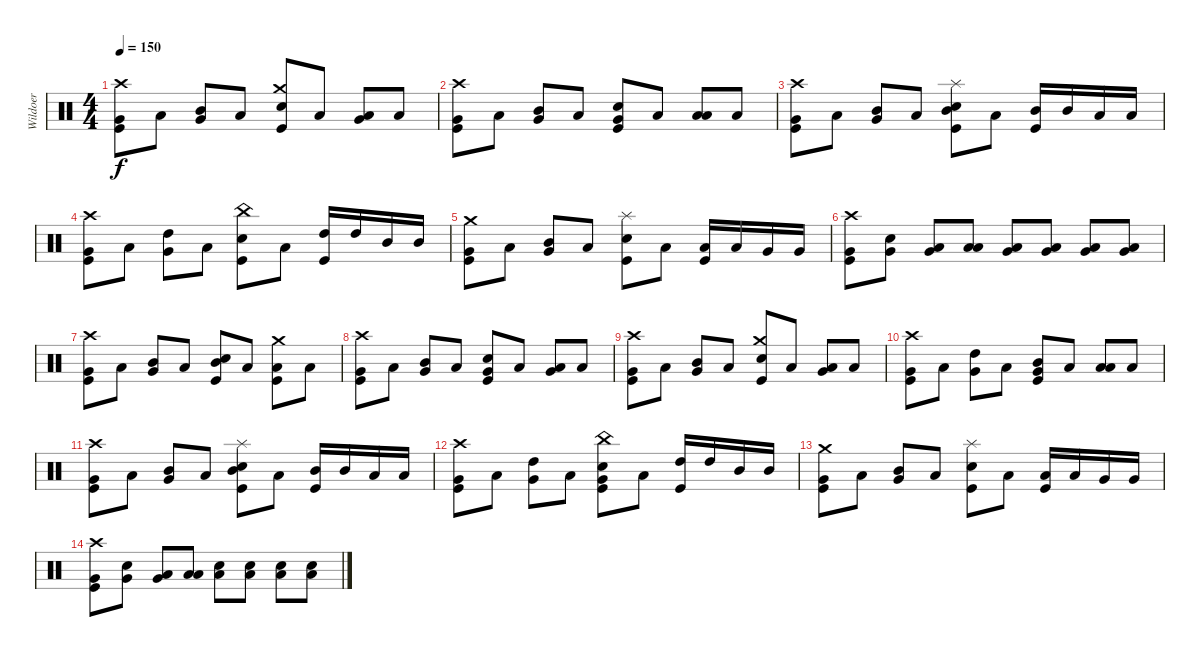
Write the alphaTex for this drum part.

\track ("Wildoer" "Wildoer") {instrument percussion}
\staff {score}
\articulation defaults
\ts (4 4)
\tempo 150
\clef neutral
\ks c
("Crash high (hit)" "Very Low Tom (hit)" "Kick (hit)").8{dy f} "Low Floor Tom (hit)".8 ("Mid Tom (hit)" "Very Low Tom (hit)").8 "Low Floor Tom (hit)".8 ("Crash medium (hit)" "Electric Snare (hit)" "Kick (hit)").8 "Low Floor Tom (hit)".8 ("Low Tom (hit)" "Very Low Tom (hit)").8 "Low Floor Tom (hit)".8 |
("Crash high (hit)" "Very Low Tom (hit)" "Kick (hit)").8 "Low Floor Tom (hit)".8 ("Mid Tom (hit)" "Very Low Tom (hit)").8 "Low Floor Tom (hit)".8 ("Electric Snare (hit)" "Very Low Tom (hit)" "Kick (hit)").8 "Low Floor Tom (hit)".8 ("Low Tom (hit)" "Low Floor Tom (hit)").8 "Low Floor Tom (hit)".8 |
("Crash high (hit)" "Very Low Tom (hit)" "Kick (hit)").8 "Low Floor Tom (hit)".8 ("Mid Tom (hit)" "Very Low Tom (hit)").8 "Low Floor Tom (hit)".8 ("Splash (hit)" "Electric Snare (hit)" "Mid Tom (hit)" "Kick (hit)").8 "Low Floor Tom (hit)".8 ("Mid Tom (hit)" "Kick (hit)").16 "Mid Tom (hit)".16 "Low Tom (hit)".16 "Low Tom (hit)".16 |
("Crash high (hit)" "Very Low Tom (hit)" "Kick (hit)").8 "Low Floor Tom (hit)".8 ("High Tom (hit)" "Very Low Tom (hit)").8 "Low Floor Tom (hit)".8 ("China (hit)" "Electric Snare (hit)" "Kick (hit)").8 "Low Floor Tom (hit)".8 ("High Tom (hit)" "Kick (hit)").16 "High Tom (hit)".16 "Mid Tom (hit)".16 "Mid Tom (hit)".16 |
("Crash medium (hit)" "Very Low Tom (hit)" "Kick (hit)").8 "Low Floor Tom (hit)".8 ("Mid Tom (hit)" "Very Low Tom (hit)").8 "Low Floor Tom (hit)".8 ("Splash (hit)" "Electric Snare (hit)" "Kick (hit)").8 "Low Floor Tom (hit)".8 ("Low Tom (hit)" "Kick (hit)").16 "Low Tom (hit)".16 "Very Low Tom (hit)".16 "Very Low Tom (hit)".16 |
("Crash high (hit)" "Very Low Tom (hit)" "Kick (hit)").8 ("Electric Snare (hit)" "Very Low Tom (hit)").8 ("Low Tom (hit)" "Very Low Tom (hit)").8 ("Low Tom (hit)" "Low Floor Tom (hit)").8 ("Low Floor Tom (hit)" "Very Low Tom (hit)").8 ("Low Floor Tom (hit)" "Very Low Tom (hit)").8 ("Low Floor Tom (hit)" "Very Low Tom (hit)").8 ("Low Floor Tom (hit)" "Very Low Tom (hit)").8 |
("Crash high (hit)" "Very Low Tom (hit)" "Kick (hit)").8 "Low Floor Tom (hit)".8 ("Mid Tom (hit)" "Very Low Tom (hit)").8 "Low Floor Tom (hit)".8 ("Electric Snare (hit)" "Mid Tom (hit)" "Kick (hit)").8 "Low Floor Tom (hit)".8 ("Crash medium (hit)" "Low Floor Tom (hit)" "Kick (hit)").8 "Low Floor Tom (hit)".8 |
("Crash high (hit)" "Very Low Tom (hit)" "Kick (hit)").8 "Low Floor Tom (hit)".8 ("Mid Tom (hit)" "Very Low Tom (hit)").8 "Low Floor Tom (hit)".8 ("Electric Snare (hit)" "Very Low Tom (hit)" "Kick (hit)").8 "Low Floor Tom (hit)".8 ("Low Tom (hit)" "Very Low Tom (hit)").8 "Low Floor Tom (hit)".8 |
("Crash high (hit)" "Very Low Tom (hit)" "Kick (hit)").8 "Low Floor Tom (hit)".8 ("Mid Tom (hit)" "Very Low Tom (hit)").8 "Low Floor Tom (hit)".8 ("Crash medium (hit)" "Electric Snare (hit)" "Kick (hit)").8 "Low Floor Tom (hit)".8 ("Low Tom (hit)" "Very Low Tom (hit)").8 "Low Floor Tom (hit)".8 |
("Crash high (hit)" "Very Low Tom (hit)" "Kick (hit)").8 "Low Floor Tom (hit)".8 ("High Tom (hit)" "Very Low Tom (hit)").8 "Low Floor Tom (hit)".8 ("Mid Tom (hit)" "Very Low Tom (hit)" "Kick (hit)").8 "Low Floor Tom (hit)".8 ("Low Tom (hit)" "Low Floor Tom (hit)").8 "Low Floor Tom (hit)".8 |
("Crash high (hit)" "Very Low Tom (hit)" "Kick (hit)").8 "Low Floor Tom (hit)".8 ("Mid Tom (hit)" "Very Low Tom (hit)").8 "Low Floor Tom (hit)".8 ("Splash (hit)" "Electric Snare (hit)" "Mid Tom (hit)" "Kick (hit)").8 "Low Floor Tom (hit)".8 ("Mid Tom (hit)" "Kick (hit)").16 "Mid Tom (hit)".16 "Low Tom (hit)".16 "Low Tom (hit)".16 |
("Crash high (hit)" "Very Low Tom (hit)" "Kick (hit)").8 "Low Floor Tom (hit)".8 ("High Tom (hit)" "Very Low Tom (hit)").8 "Low Floor Tom (hit)".8 ("China (hit)" "Electric Snare (hit)" "Very Low Tom (hit)" "Kick (hit)").8 "Low Floor Tom (hit)".8 ("High Tom (hit)" "Kick (hit)").16 "High Tom (hit)".16 "Mid Tom (hit)".16 "Mid Tom (hit)".16 |
("Crash medium (hit)" "Very Low Tom (hit)" "Kick (hit)").8 "Low Floor Tom (hit)".8 ("Mid Tom (hit)" "Very Low Tom (hit)").8 "Low Floor Tom (hit)".8 ("Splash (hit)" "Electric Snare (hit)" "Kick (hit)").8 "Low Floor Tom (hit)".8 ("Low Tom (hit)" "Kick (hit)").16 "Low Tom (hit)".16 "Very Low Tom (hit)".16 "Very Low Tom (hit)".16 |
("Crash high (hit)" "Very Low Tom (hit)" "Kick (hit)").8 ("Electric Snare (hit)" "Very Low Tom (hit)").8 ("Low Tom (hit)" "Very Low Tom (hit)").8 ("Low Tom (hit)" "Low Floor Tom (hit)").8 ("Low Floor Tom (hit)" "Electric Snare (hit)").8 ("Low Floor Tom (hit)" "Electric Snare (hit)").8 ("Low Floor Tom (hit)" "Electric Snare (hit)").8 ("Low Floor Tom (hit)" "Electric Snare (hit)").8
